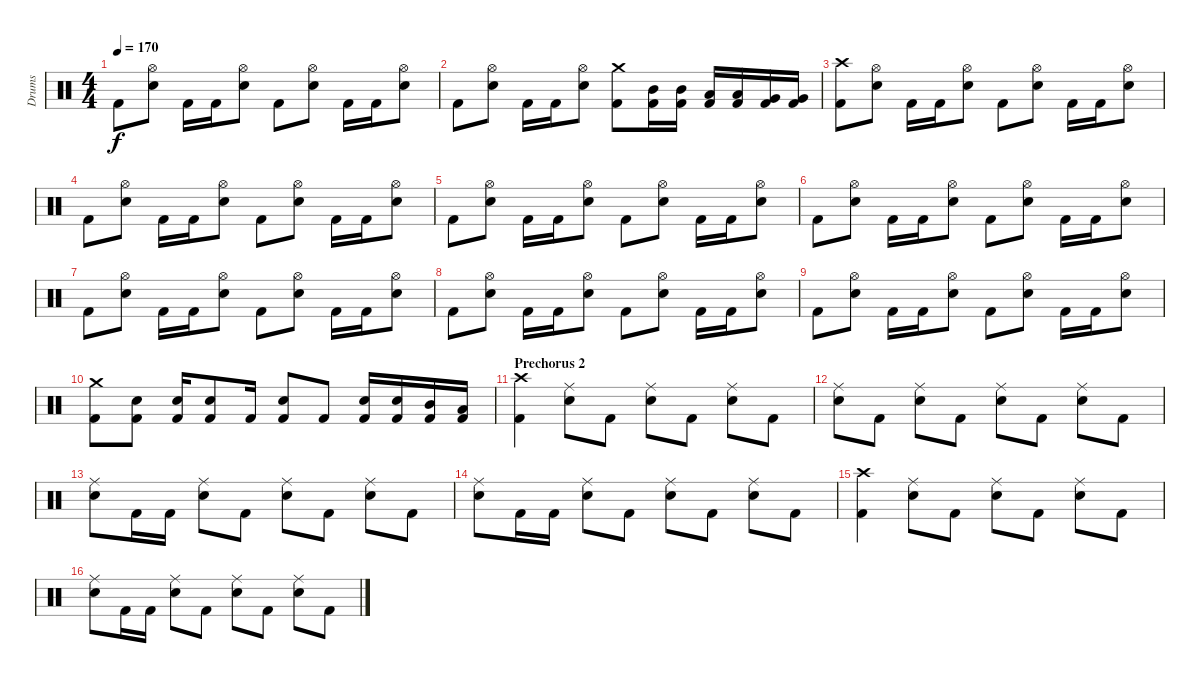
\track ("Drums" "Drums") {instrument percussion}
\staff {score}
\articulation defaults
\ts (4 4)
\tempo 170
\clef neutral
\ks c "Kick (hit) 2".8{dy f}
("Hi-Hat (open)" "Snare (hit) 2").8 "Kick (hit) 2".16 "Kick (hit) 2".16 ("Hi-Hat (open)" "Snare (hit) 2").8 "Kick (hit) 2".8 ("Hi-Hat (open)" "Snare (hit) 2").8 "Kick (hit) 2".16 "Kick (hit) 2".16 ("Hi-Hat (open)" "Snare (hit) 2").8 |
"Kick (hit) 2".8 ("Hi-Hat (open)" "Snare (hit) 2").8 "Kick (hit) 2".16 "Kick (hit) 2".16 ("Hi-Hat (open)" "Snare (hit) 2").8 ("Crash medium (hit)" "Kick (hit) 2").8 ("Mid Tom (hit)" "Kick (hit) 2").16 ("Mid Tom (hit)" "Kick (hit) 2").16 ("Low Tom (hit)" "Kick (hit) 2").16 ("Low Tom (hit)" "Kick (hit) 2").16 ("Very Low Tom (hit)" "Kick (hit) 2").16 ("Very Low Tom (hit)" "Kick (hit) 2").16 |
("Crash high (hit)" "Kick (hit) 2").8 ("Hi-Hat (open)" "Snare (hit) 2").8 "Kick (hit) 2".16 "Kick (hit) 2".16 ("Hi-Hat (open)" "Snare (hit) 2").8 "Kick (hit) 2".8 ("Hi-Hat (open)" "Snare (hit) 2").8 "Kick (hit) 2".16 "Kick (hit) 2".16 ("Hi-Hat (open)" "Snare (hit) 2").8 |
"Kick (hit) 2".8 ("Hi-Hat (open)" "Snare (hit) 2").8 "Kick (hit) 2".16 "Kick (hit) 2".16 ("Hi-Hat (open)" "Snare (hit) 2").8 "Kick (hit) 2".8 ("Hi-Hat (open)" "Snare (hit) 2").8 "Kick (hit) 2".16 "Kick (hit) 2".16 ("Hi-Hat (open)" "Snare (hit) 2").8 |
"Kick (hit) 2".8 ("Hi-Hat (open)" "Snare (hit) 2").8 "Kick (hit) 2".16 "Kick (hit) 2".16 ("Hi-Hat (open)" "Snare (hit) 2").8 "Kick (hit) 2".8 ("Hi-Hat (open)" "Snare (hit) 2").8 "Kick (hit) 2".16 "Kick (hit) 2".16 ("Hi-Hat (open)" "Snare (hit) 2").8 |
"Kick (hit) 2".8 ("Hi-Hat (open)" "Snare (hit) 2").8 "Kick (hit) 2".16 "Kick (hit) 2".16 ("Hi-Hat (open)" "Snare (hit) 2").8 "Kick (hit) 2".8 ("Hi-Hat (open)" "Snare (hit) 2").8 "Kick (hit) 2".16 "Kick (hit) 2".16 ("Hi-Hat (open)" "Snare (hit) 2").8 |
"Kick (hit) 2".8 ("Hi-Hat (open)" "Snare (hit) 2").8 "Kick (hit) 2".16 "Kick (hit) 2".16 ("Hi-Hat (open)" "Snare (hit) 2").8 "Kick (hit) 2".8 ("Hi-Hat (open)" "Snare (hit) 2").8 "Kick (hit) 2".16 "Kick (hit) 2".16 ("Hi-Hat (open)" "Snare (hit) 2").8 |
"Kick (hit) 2".8 ("Hi-Hat (open)" "Snare (hit) 2").8 "Kick (hit) 2".16 "Kick (hit) 2".16 ("Hi-Hat (open)" "Snare (hit) 2").8 "Kick (hit) 2".8 ("Hi-Hat (open)" "Snare (hit) 2").8 "Kick (hit) 2".16 "Kick (hit) 2".16 ("Hi-Hat (open)" "Snare (hit) 2").8 |
"Kick (hit) 2".8 ("Hi-Hat (open)" "Snare (hit) 2").8 "Kick (hit) 2".16 "Kick (hit) 2".16 ("Hi-Hat (open)" "Snare (hit) 2").8 "Kick (hit) 2".8 ("Hi-Hat (open)" "Snare (hit) 2").8 "Kick (hit) 2".16 "Kick (hit) 2".16 ("Hi-Hat (open)" "Snare (hit) 2").8 |
("Crash medium (hit)" "Kick (hit) 2").8 ("Snare (hit) 2" "Kick (hit) 2").8 ("Snare (hit) 2" "Kick (hit) 2").16 ("Snare (hit) 2" "Kick (hit) 2").8 "Kick (hit) 2".16 ("Snare (hit) 2" "Kick (hit) 2").8 "Kick (hit) 2".8 ("Snare (hit) 2" "Kick (hit) 2").16 ("Snare (hit) 2" "Kick (hit) 2").16 ("Mid Tom (hit)" "Kick (hit) 2").16 ("Low Tom (hit)" "Kick (hit) 2").16 |
\section ("" "Prechorus 2")
("Crash high (hit)" "Kick (hit) 2").4 ("Ride (middle)" "Snare (hit) 2").8 "Kick (hit) 2".8 ("Ride (middle)" "Snare (hit) 2").8 "Kick (hit) 2".8 ("Ride (middle)" "Snare (hit) 2").8 "Kick (hit) 2".8 |
("Ride (middle)" "Snare (hit) 2").8 "Kick (hit) 2".8 ("Ride (middle)" "Snare (hit) 2").8 "Kick (hit) 2".8 ("Ride (middle)" "Snare (hit) 2").8 "Kick (hit) 2".8 ("Ride (middle)" "Snare (hit) 2").8 "Kick (hit) 2".8 |
("Ride (middle)" "Snare (hit) 2").8 "Kick (hit) 2".16 "Kick (hit) 2".16 ("Ride (middle)" "Snare (hit) 2").8 "Kick (hit) 2".8 ("Ride (middle)" "Snare (hit) 2").8 "Kick (hit) 2".8 ("Ride (middle)" "Snare (hit) 2").8 "Kick (hit) 2".8 |
("Ride (middle)" "Snare (hit) 2").8 "Kick (hit) 2".16 "Kick (hit) 2".16 ("Ride (middle)" "Snare (hit) 2").8 "Kick (hit) 2".8 ("Ride (middle)" "Snare (hit) 2").8 "Kick (hit) 2".8 ("Ride (middle)" "Snare (hit) 2").8 "Kick (hit) 2".8 |
("Crash high (hit)" "Kick (hit) 2").4 ("Ride (middle)" "Snare (hit) 2").8 "Kick (hit) 2".8 ("Ride (middle)" "Snare (hit) 2").8 "Kick (hit) 2".8 ("Ride (middle)" "Snare (hit) 2").8 "Kick (hit) 2".8 |
("Ride (middle)" "Snare (hit) 2").8 "Kick (hit) 2".16 "Kick (hit) 2".16 ("Ride (middle)" "Snare (hit) 2").8 "Kick (hit) 2".8 ("Ride (middle)" "Snare (hit) 2").8 "Kick (hit) 2".8 ("Ride (middle)" "Snare (hit) 2").8 "Kick (hit) 2".8
